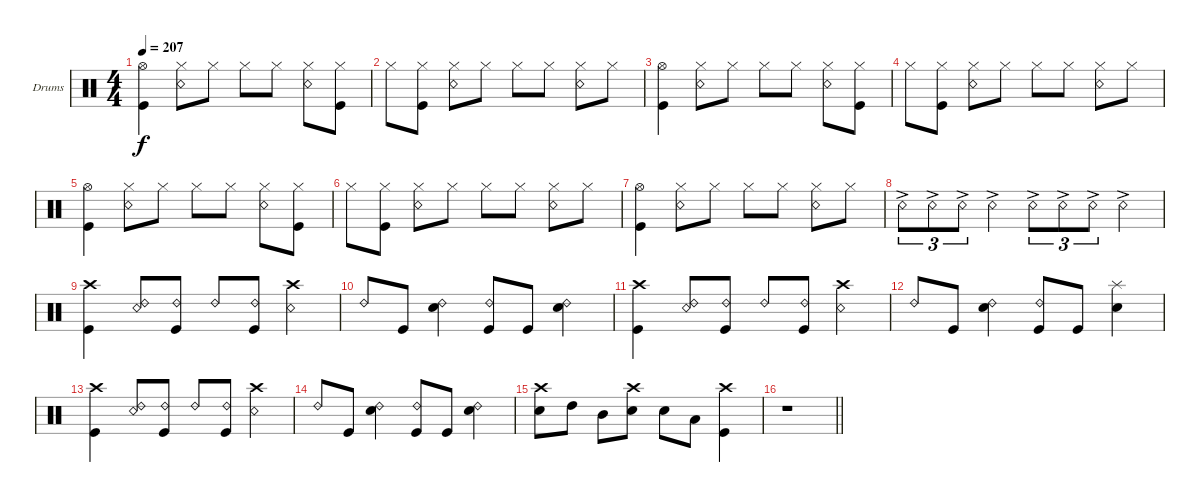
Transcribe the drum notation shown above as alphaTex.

\defaultSystemsLayout 4
\bracketExtendMode groupsimilarinstruments
\firstSystemTrackNameOrientation horizontal
\otherSystemsTrackNameOrientation horizontal
\track ("Drums" "Drums") {instrument percussion}
\staff {score}
\articulation defaults
\ts (4 4)
\tempo 207
\clef neutral
\ks c
("Kick (hit)" "Hi-Hat (open)").4{dy f} ("Snare (rim shot)" "Hi-Hat (closed)").8 "Hi-Hat (closed)".8 "Hi-Hat (closed)".8 "Hi-Hat (closed)".8 ("Snare (rim shot)" "Hi-Hat (closed)").8 ("Hi-Hat (closed)" "Kick (hit)").8 |
"Hi-Hat (closed)".8 ("Kick (hit)" "Hi-Hat (closed)").8 ("Snare (rim shot)" "Hi-Hat (closed)").8 "Hi-Hat (closed)".8 "Hi-Hat (closed)".8 "Hi-Hat (closed)".8 ("Snare (rim shot)" "Hi-Hat (closed)").8 "Hi-Hat (closed)".8 |
("Kick (hit)" "Hi-Hat (open)").4 ("Snare (rim shot)" "Hi-Hat (closed)").8 "Hi-Hat (closed)".8 "Hi-Hat (closed)".8 "Hi-Hat (closed)".8 ("Snare (rim shot)" "Hi-Hat (closed)").8 ("Hi-Hat (closed)" "Kick (hit)").8 |
"Hi-Hat (closed)".8 ("Kick (hit)" "Hi-Hat (closed)").8 ("Snare (rim shot)" "Hi-Hat (closed)").8 "Hi-Hat (closed)".8 "Hi-Hat (closed)".8 "Hi-Hat (closed)".8 ("Snare (rim shot)" "Hi-Hat (closed)").8 "Hi-Hat (closed)".8 |
("Kick (hit)" "Hi-Hat (open)").4 ("Snare (rim shot)" "Hi-Hat (closed)").8 "Hi-Hat (closed)".8 "Hi-Hat (closed)".8 "Hi-Hat (closed)".8 ("Snare (rim shot)" "Hi-Hat (closed)").8 ("Hi-Hat (closed)" "Kick (hit)").8 |
"Hi-Hat (closed)".8 ("Kick (hit)" "Hi-Hat (closed)").8 ("Snare (rim shot)" "Hi-Hat (closed)").8 "Hi-Hat (closed)".8 "Hi-Hat (closed)".8 "Hi-Hat (closed)".8 ("Snare (rim shot)" "Hi-Hat (closed)").8 "Hi-Hat (closed)".8 |
("Kick (hit)" "Hi-Hat (open)").4 ("Snare (rim shot)" "Hi-Hat (closed)").8 "Hi-Hat (closed)".8 "Hi-Hat (closed)".8 "Hi-Hat (closed)".8 ("Snare (rim shot)" "Hi-Hat (closed)").8 "Hi-Hat (closed)".8 |
"Snare (rim shot)"{ac}.8{tu (3 2)} "Snare (rim shot)"{ac}.8{tu (3 2)} "Snare (rim shot)"{ac}.8{tu (3 2)} "Snare (rim shot)"{ac}.4 "Snare (rim shot)"{ac}.8{tu (3 2)} "Snare (rim shot)"{ac}.8{tu (3 2)} "Snare (rim shot)"{ac}.8{tu (3 2)} "Snare (rim shot)"{ac}.4 |
("Crash high (hit)" "Kick (hit)").4 ("Snare (rim shot)" "Ride (bell) 2").8 ("Kick (hit)" "Ride (bell) 2").8 "Ride (bell) 2".8 ("Kick (hit)" "Ride (bell) 2").8 ("Snare (rim shot)" "Crash high (hit)").4 |
"Ride (bell) 2".8 "Kick (hit)".8 ("Ride (bell) 2" "Snare (hit) 2").4 ("Kick (hit)" "Ride (bell) 2").8 "Kick (hit)".8 ("Ride (bell) 2" "Snare (hit) 2").4 |
("Crash high (hit)" "Kick (hit)").4 ("Snare (rim shot)" "Ride (bell) 2").8 ("Kick (hit)" "Ride (bell) 2").8 "Ride (bell) 2".8 ("Kick (hit)" "Ride (bell) 2").8 ("Snare (rim shot)" "Crash high (hit)").4 |
"Ride (bell) 2".8 "Kick (hit)".8 ("Ride (bell) 2" "Snare (hit) 2").4 ("Kick (hit)" "Ride (bell) 2").8 "Kick (hit)".8 ("Snare (hit) 2" "Splash (hit)").4 |
("Crash high (hit)" "Kick (hit)").4 ("Snare (rim shot)" "Ride (bell) 2").8 ("Kick (hit)" "Ride (bell) 2").8 "Ride (bell) 2".8 ("Kick (hit)" "Ride (bell) 2").8 ("Snare (rim shot)" "Crash high (hit)").4 |
"Ride (bell) 2".8 "Kick (hit)".8 ("Ride (bell) 2" "Snare (hit) 2").4 ("Kick (hit)" "Ride (bell) 2").8 "Kick (hit)".8 ("Ride (bell) 2" "Snare (hit) 2").4 |
("Snare (hit) 2" "Crash high (hit)").8 "High Tom (hit)".8 "Mid Tom (hit)".8 ("Snare (hit) 2" "Crash high (hit)").8 "Snare (hit) 2".8 "Low Tom (hit)".8 ("Kick (hit)" "Crash high (hit)").4 |
\barLineRight lightlight
r.1
